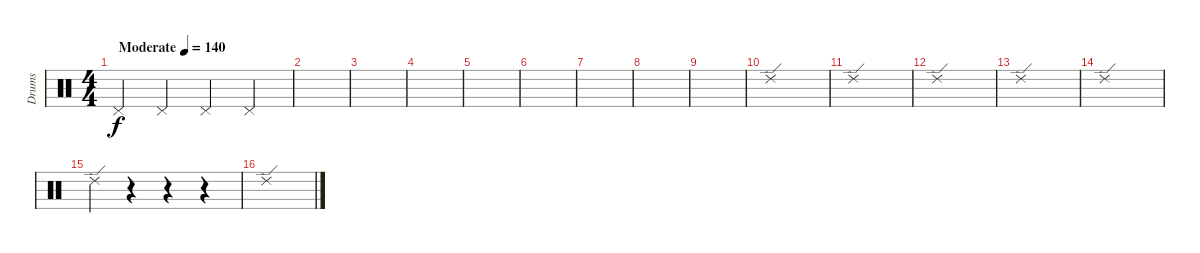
\track ("Drums" "Drums") {instrument percussion}
\staff {score}
\articulation defaults
\ts (4 4)
\tempo (140 "Moderate")
\clef neutral
\ks c "Pedal Hi-Hat (hit)".4{dy f} "Pedal Hi-Hat (hit)".4 "Pedal Hi-Hat (hit)".4 "Pedal Hi-Hat (hit)".4
|
|
|
|
|
|
|
|
|
"Ride (edge) 2".1 |
"Ride (edge) 2".1 |
"Ride (edge) 2".1 |
"Ride (edge) 2".1 |
"Ride (edge) 2".1 |
"Ride (edge) 2".4 r.4 r.4 r.4 |
"Ride (edge) 2".1
